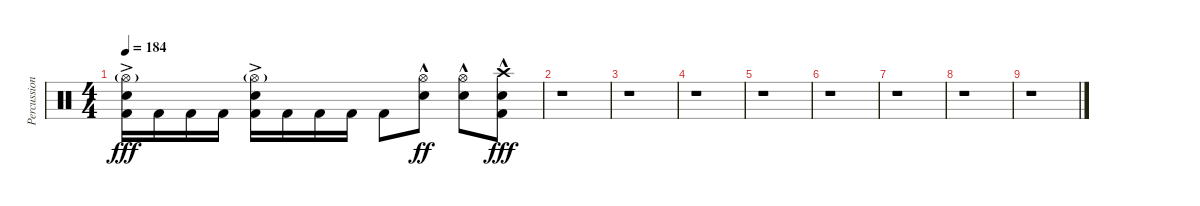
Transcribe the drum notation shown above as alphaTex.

\track ("Percussion , Drums - Travis Smith" "Percussion") {instrument percussion}
\staff {score}
\articulation defaults
\ts (4 4)
\tempo 184
\clef neutral
\ks c
("Hi-Hat (open)"{g} "Electric Snare (hit)"{ac} "Kick (hit) 2").16{dy fff} "Kick (hit) 2".16 "Kick (hit) 2".16 "Kick (hit) 2".16 ("Hi-Hat (open)"{g} "Electric Snare (hit)"{ac} "Kick (hit) 2").16 "Kick (hit) 2".16 "Kick (hit) 2".16 "Kick (hit) 2".16 "Kick (hit) 2".8 ("Hi-Hat (open)"{hac} "Electric Snare (hit)"{hac}).8{dy ff} ("Hi-Hat (open)"{hac} "Electric Snare (hit)"{hac}).8 ("Crash high (hit)"{hac} "Electric Snare (hit)"{hac} "Kick (hit) 2"{hac}).8{dy fff} |
r.1 |
r.1 |
r.1 |
r.1 |
r.1 |
r.1 |
r.1 |
r.1
